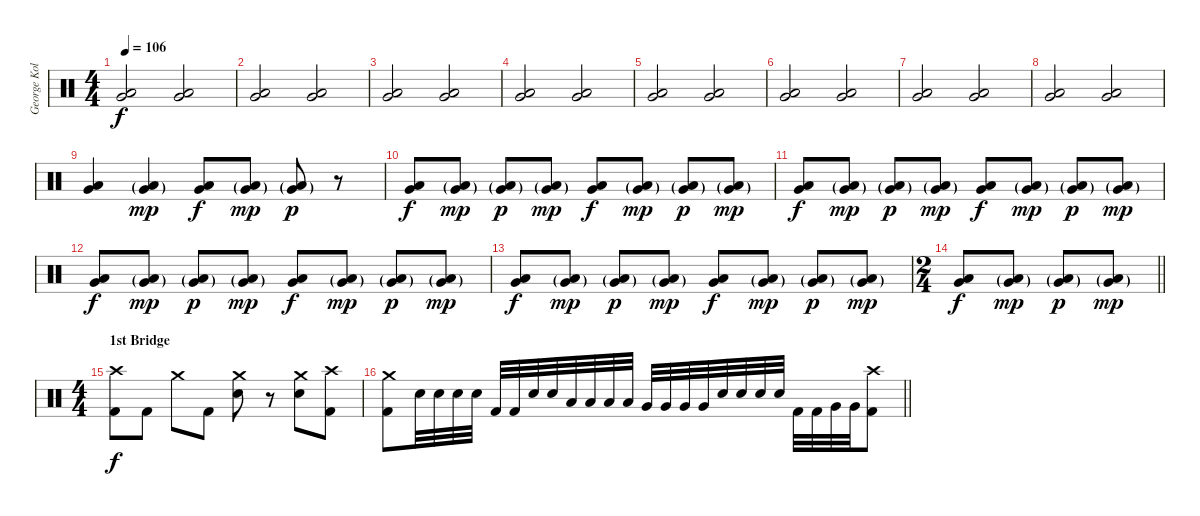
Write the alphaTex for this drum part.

\track ("George Kollias" "George Kol") {instrument percussion}
\staff {score}
\articulation defaults
\ts (4 4)
\tempo 106
\clef neutral
\ks c
("Very Low Tom (hit)" "Low Floor Tom (hit)").2{dy f} ("Very Low Tom (hit)" "Low Floor Tom (hit)").2 |
("Very Low Tom (hit)" "Low Floor Tom (hit)").2 ("Very Low Tom (hit)" "Low Floor Tom (hit)").2 |
("Very Low Tom (hit)" "Low Floor Tom (hit)").2 ("Very Low Tom (hit)" "Low Floor Tom (hit)").2 |
("Very Low Tom (hit)" "Low Floor Tom (hit)").2 ("Very Low Tom (hit)" "Low Floor Tom (hit)").2 |
("Very Low Tom (hit)" "Low Floor Tom (hit)").2 ("Very Low Tom (hit)" "Low Floor Tom (hit)").2 |
("Very Low Tom (hit)" "Low Floor Tom (hit)").2 ("Very Low Tom (hit)" "Low Floor Tom (hit)").2 |
("Very Low Tom (hit)" "Low Floor Tom (hit)").2 ("Very Low Tom (hit)" "Low Floor Tom (hit)").2 |
("Very Low Tom (hit)" "Low Floor Tom (hit)").2 ("Very Low Tom (hit)" "Low Floor Tom (hit)").2 |
("Very Low Tom (hit)" "Low Floor Tom (hit)").4 ("Very Low Tom (hit)"{g} "Low Floor Tom (hit)"{g}).4{dy mp} ("Very Low Tom (hit)" "Low Floor Tom (hit)").8{dy f} ("Very Low Tom (hit)"{g} "Low Floor Tom (hit)"{g}).8{dy mp} ("Very Low Tom (hit)"{g} "Low Floor Tom (hit)"{g}).8{dy p} r.8 |
("Very Low Tom (hit)" "Low Floor Tom (hit)").8{dy f} ("Very Low Tom (hit)"{g} "Low Floor Tom (hit)"{g}).8{dy mp} ("Very Low Tom (hit)"{g} "Low Floor Tom (hit)"{g}).8{dy p} ("Very Low Tom (hit)"{g} "Low Floor Tom (hit)"{g}).8{dy mp} ("Very Low Tom (hit)" "Low Floor Tom (hit)").8{dy f} ("Very Low Tom (hit)"{g} "Low Floor Tom (hit)"{g}).8{dy mp} ("Very Low Tom (hit)"{g} "Low Floor Tom (hit)"{g}).8{dy p} ("Very Low Tom (hit)"{g} "Low Floor Tom (hit)"{g}).8{dy mp} |
("Very Low Tom (hit)" "Low Floor Tom (hit)").8{dy f} ("Very Low Tom (hit)"{g} "Low Floor Tom (hit)"{g}).8{dy mp} ("Very Low Tom (hit)"{g} "Low Floor Tom (hit)"{g}).8{dy p} ("Very Low Tom (hit)"{g} "Low Floor Tom (hit)"{g}).8{dy mp} ("Very Low Tom (hit)" "Low Floor Tom (hit)").8{dy f} ("Very Low Tom (hit)"{g} "Low Floor Tom (hit)"{g}).8{dy mp} ("Very Low Tom (hit)"{g} "Low Floor Tom (hit)"{g}).8{dy p} ("Very Low Tom (hit)"{g} "Low Floor Tom (hit)"{g}).8{dy mp} |
("Very Low Tom (hit)" "Low Floor Tom (hit)").8{dy f} ("Very Low Tom (hit)"{g} "Low Floor Tom (hit)"{g}).8{dy mp} ("Very Low Tom (hit)"{g} "Low Floor Tom (hit)"{g}).8{dy p} ("Very Low Tom (hit)"{g} "Low Floor Tom (hit)"{g}).8{dy mp} ("Very Low Tom (hit)" "Low Floor Tom (hit)").8{dy f} ("Very Low Tom (hit)"{g} "Low Floor Tom (hit)"{g}).8{dy mp} ("Very Low Tom (hit)"{g} "Low Floor Tom (hit)"{g}).8{dy p} ("Very Low Tom (hit)"{g} "Low Floor Tom (hit)"{g}).8{dy mp} |
("Very Low Tom (hit)" "Low Floor Tom (hit)").8{dy f} ("Very Low Tom (hit)"{g} "Low Floor Tom (hit)"{g}).8{dy mp} ("Very Low Tom (hit)"{g} "Low Floor Tom (hit)"{g}).8{dy p} ("Very Low Tom (hit)"{g} "Low Floor Tom (hit)"{g}).8{dy mp} ("Very Low Tom (hit)" "Low Floor Tom (hit)").8{dy f} ("Very Low Tom (hit)"{g} "Low Floor Tom (hit)"{g}).8{dy mp} ("Very Low Tom (hit)"{g} "Low Floor Tom (hit)"{g}).8{dy p} ("Very Low Tom (hit)"{g} "Low Floor Tom (hit)"{g}).8{dy mp} |
\ts (2 4)
\barLineRight lightlight
("Very Low Tom (hit)" "Low Floor Tom (hit)").8{dy f} ("Very Low Tom (hit)"{g} "Low Floor Tom (hit)"{g}).8{dy mp} ("Very Low Tom (hit)"{g} "Low Floor Tom (hit)"{g}).8{dy p} ("Very Low Tom (hit)"{g} "Low Floor Tom (hit)"{g}).8{dy mp} |
\ts (4 4)
\section ("" "1st Bridge")
("Crash high (hit)" "Kick (hit) 2").8{dy f} "Kick (hit) 2".8 "Crash medium (hit)".8 "Kick (hit) 2".8 ("Crash medium (hit)" "Electric Snare (hit)").8 r.8 ("Crash medium (hit)" "Electric Snare (hit)").8 ("Crash high (hit)" "Kick (hit) 2").8 |
\barLineRight lightlight
("Crash medium (hit)" "Kick (hit) 2").8 "Electric Snare (hit)".32 "Electric Snare (hit)".32 "Electric Snare (hit)".32 "Electric Snare (hit)".32 "Kick (hit) 2".32 "Kick (hit) 2".32 "Electric Snare (hit)".32 "Electric Snare (hit)".32 "Low Tom (hit)".32 "Low Tom (hit)".32 "Low Tom (hit)".32 "Low Tom (hit)".32 "Very Low Tom (hit)".32 "Very Low Tom (hit)".32 "Very Low Tom (hit)".32 "Very Low Tom (hit)".32 "Electric Snare (hit)".32 "Electric Snare (hit)".32 "Electric Snare (hit)".32 "Electric Snare (hit)".32 "Kick (hit) 2".32 "Kick (hit) 2".32 "Very Low Tom (hit)".32 "Very Low Tom (hit)".32 ("Crash high (hit)" "Kick (hit) 2").8
